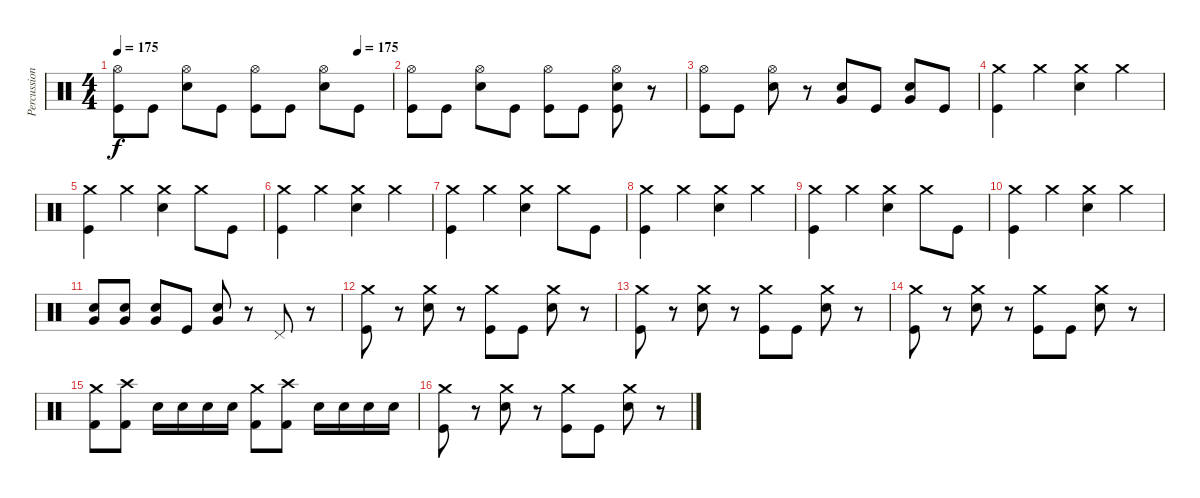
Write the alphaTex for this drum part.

\track ("Percussion" "Percussion") {instrument percussion}
\staff {score}
\articulation defaults
\ts (4 4)
\tempo 175
\tempo (175 0.875)
\clef neutral
\ks c
("Hi-Hat (open)" "Kick (hit)").8{dy f} "Kick (hit)".8 ("Hi-Hat (open)" "Electric Snare (hit)").8 "Kick (hit)".8 ("Hi-Hat (open)" "Kick (hit)").8 "Kick (hit)".8 ("Hi-Hat (open)" "Electric Snare (hit)").8 "Kick (hit)".8 |
("Hi-Hat (open)" "Kick (hit)").8 "Kick (hit)".8 ("Hi-Hat (open)" "Electric Snare (hit)").8 "Kick (hit)".8 ("Hi-Hat (open)" "Kick (hit)").8 "Kick (hit)".8 ("Hi-Hat (open)" "Electric Snare (hit)" "Kick (hit)").8 r.8 |
("Hi-Hat (open)" "Kick (hit)").8 "Kick (hit)".8 ("Hi-Hat (open)" "Electric Snare (hit)").8 r.8 ("Very Low Tom (hit)" "Electric Snare (hit)").8 "Kick (hit)".8 ("Very Low Tom (hit)" "Electric Snare (hit)").8 "Kick (hit)".8 |
("Crash medium (hit)" "Kick (hit)").4 "Crash medium (hit)".4 ("Crash medium (hit)" "Electric Snare (hit)").4 "Crash medium (hit)".4 |
("Crash medium (hit)" "Kick (hit)").4 "Crash medium (hit)".4 ("Crash medium (hit)" "Electric Snare (hit)").4 "Crash medium (hit)".8 "Kick (hit)".8 |
("Crash medium (hit)" "Kick (hit)").4 "Crash medium (hit)".4 ("Crash medium (hit)" "Electric Snare (hit)").4 "Crash medium (hit)".4 |
("Crash medium (hit)" "Kick (hit)").4 "Crash medium (hit)".4 ("Crash medium (hit)" "Electric Snare (hit)").4 "Crash medium (hit)".8 "Kick (hit)".8 |
("Crash medium (hit)" "Kick (hit)").4 "Crash medium (hit)".4 ("Crash medium (hit)" "Electric Snare (hit)").4 "Crash medium (hit)".4 |
("Crash medium (hit)" "Kick (hit)").4 "Crash medium (hit)".4 ("Crash medium (hit)" "Electric Snare (hit)").4 "Crash medium (hit)".8 "Kick (hit)".8 |
("Crash medium (hit)" "Kick (hit)").4 "Crash medium (hit)".4 ("Crash medium (hit)" "Electric Snare (hit)").4 "Crash medium (hit)".4 |
("Very Low Tom (hit)" "Electric Snare (hit)").8 ("Very Low Tom (hit)" "Electric Snare (hit)").8 ("Very Low Tom (hit)" "Electric Snare (hit)").8 "Kick (hit)".8 ("Very Low Tom (hit)" "Electric Snare (hit)").8 r.8 "Pedal Hi-Hat (hit)".8 r.8 |
("Crash medium (hit)" "Kick (hit)").8 r.8 ("Crash medium (hit)" "Electric Snare (hit)").8 r.8 ("Crash medium (hit)" "Kick (hit)").8 "Kick (hit)".8 ("Crash medium (hit)" "Electric Snare (hit)").8 r.8 |
("Crash medium (hit)" "Kick (hit)").8 r.8 ("Crash medium (hit)" "Electric Snare (hit)").8 r.8 ("Crash medium (hit)" "Kick (hit)").8 "Kick (hit)".8 ("Crash medium (hit)" "Electric Snare (hit)").8 r.8 |
("Crash medium (hit)" "Kick (hit)").8 r.8 ("Crash medium (hit)" "Electric Snare (hit)").8 r.8 ("Crash medium (hit)" "Kick (hit)").8 "Kick (hit)".8 ("Crash medium (hit)" "Electric Snare (hit)").8 r.8 |
("Crash medium (hit)" "Kick (hit) 2").8 ("Crash high (hit)" "Kick (hit) 2").8 "Electric Snare (hit)".16 "Electric Snare (hit)".16 "Electric Snare (hit)".16 "Electric Snare (hit)".16 ("Crash medium (hit)" "Kick (hit) 2").8 ("Crash high (hit)" "Kick (hit) 2").8 "Electric Snare (hit)".16 "Electric Snare (hit)".16 "Electric Snare (hit)".16 "Electric Snare (hit)".16 |
("Crash medium (hit)" "Kick (hit)").8 r.8 ("Crash medium (hit)" "Electric Snare (hit)").8 r.8 ("Crash medium (hit)" "Kick (hit)").8 "Kick (hit)".8 ("Crash medium (hit)" "Electric Snare (hit)").8 r.8
